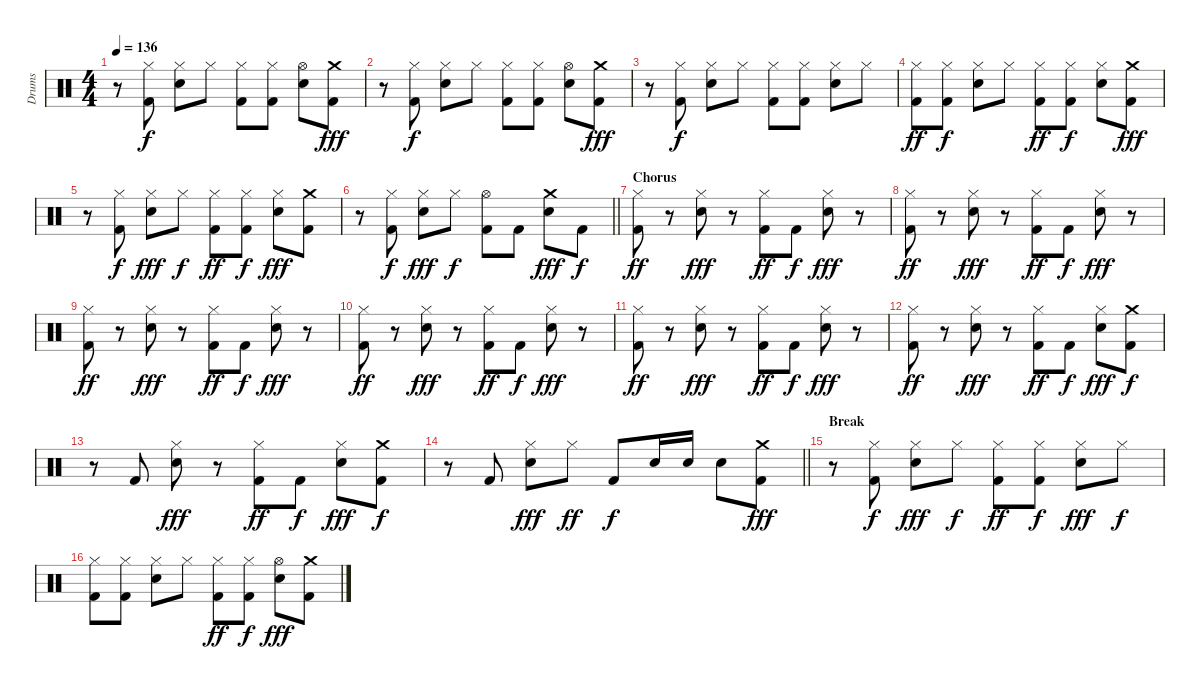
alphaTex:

\track ("Drums" "Drums") {instrument percussion}
\staff {score}
\articulation defaults
\ts (4 4)
\tempo 136
\clef neutral
\ks c
r.8{dy fff} ("Hi-Hat (closed)" "Kick (hit) 2").8{dy f} ("Hi-Hat (closed)" "Snare (hit) 2").8 "Hi-Hat (closed)".8 ("Hi-Hat (closed)" "Kick (hit) 2").8 ("Hi-Hat (closed)" "Kick (hit) 2").8 ("Hi-Hat (open)" "Snare (hit) 2").8 ("Crash medium (hit)" "Kick (hit) 2").8{dy fff} |
r.8 ("Hi-Hat (closed)" "Kick (hit) 2").8{dy f} ("Hi-Hat (closed)" "Snare (hit) 2").8 "Hi-Hat (closed)".8 ("Hi-Hat (closed)" "Kick (hit) 2").8 ("Hi-Hat (closed)" "Kick (hit) 2").8 ("Hi-Hat (open)" "Snare (hit) 2").8 ("Crash medium (hit)" "Kick (hit) 2").8{dy fff} |
r.8 ("Hi-Hat (closed)" "Kick (hit) 2").8{dy f} ("Hi-Hat (closed)" "Snare (hit) 2").8 "Hi-Hat (closed)".8 ("Hi-Hat (closed)" "Kick (hit) 2").8 ("Hi-Hat (closed)" "Kick (hit) 2").8 ("Hi-Hat (closed)" "Snare (hit) 2").8 "Hi-Hat (closed)".8 |
("Hi-Hat (closed)" "Kick (hit) 2").8{dy ff} ("Hi-Hat (closed)" "Kick (hit) 2").8{dy f} ("Hi-Hat (closed)" "Snare (hit) 2").8 "Hi-Hat (closed)".8 ("Hi-Hat (closed)" "Kick (hit) 2").8{dy ff} ("Hi-Hat (closed)" "Kick (hit) 2").8{dy f} ("Hi-Hat (closed)" "Snare (hit) 2").8 ("Crash medium (hit)" "Kick (hit) 2").8{dy fff} |
r.8 ("Hi-Hat (closed)" "Kick (hit) 2").8{dy f} ("Hi-Hat (closed)" "Snare (hit) 2").8{dy fff} "Hi-Hat (closed)".8{dy f} ("Hi-Hat (closed)" "Kick (hit) 2").8{dy ff} ("Hi-Hat (closed)" "Kick (hit) 2").8{dy f} ("Hi-Hat (closed)" "Snare (hit) 2").8{dy fff} ("Crash medium (hit)" "Kick (hit) 2").8 |
\barLineRight lightlight
r.8 ("Hi-Hat (closed)" "Kick (hit) 2").8{dy f} ("Hi-Hat (closed)" "Snare (hit) 2").8{dy fff} "Hi-Hat (closed)".8{dy f} ("Hi-Hat (open)" "Kick (hit) 2").8 "Kick (hit) 2".8 ("Crash medium (hit)" "Snare (hit) 2").8{dy fff} "Kick (hit) 2".8{dy f} |
\section ("" "Chorus")
("Hi-Hat (closed)" "Kick (hit) 2").8{dy ff} r.8 ("Hi-Hat (closed)" "Snare (hit) 2").8{dy fff} r.8 ("Hi-Hat (closed)" "Kick (hit) 2").8{dy ff} "Kick (hit) 2".8{dy f} ("Hi-Hat (closed)" "Snare (hit) 2").8{dy fff} r.8 |
("Hi-Hat (closed)" "Kick (hit) 2").8{dy ff} r.8 ("Hi-Hat (closed)" "Snare (hit) 2").8{dy fff} r.8 ("Hi-Hat (closed)" "Kick (hit) 2").8{dy ff} "Kick (hit) 2".8{dy f} ("Hi-Hat (closed)" "Snare (hit) 2").8{dy fff} r.8 |
("Hi-Hat (closed)" "Kick (hit) 2").8{dy ff} r.8 ("Hi-Hat (closed)" "Snare (hit) 2").8{dy fff} r.8 ("Hi-Hat (closed)" "Kick (hit) 2").8{dy ff} "Kick (hit) 2".8{dy f} ("Hi-Hat (closed)" "Snare (hit) 2").8{dy fff} r.8 |
("Hi-Hat (closed)" "Kick (hit) 2").8{dy ff} r.8 ("Hi-Hat (closed)" "Snare (hit) 2").8{dy fff} r.8 ("Hi-Hat (closed)" "Kick (hit) 2").8{dy ff} "Kick (hit) 2".8{dy f} ("Hi-Hat (closed)" "Snare (hit) 2").8{dy fff} r.8 |
("Hi-Hat (closed)" "Kick (hit) 2").8{dy ff} r.8 ("Hi-Hat (closed)" "Snare (hit) 2").8{dy fff} r.8 ("Hi-Hat (closed)" "Kick (hit) 2").8{dy ff} "Kick (hit) 2".8{dy f} ("Hi-Hat (closed)" "Snare (hit) 2").8{dy fff} r.8 |
("Hi-Hat (closed)" "Kick (hit) 2").8{dy ff} r.8 ("Hi-Hat (closed)" "Snare (hit) 2").8{dy fff} r.8 ("Hi-Hat (closed)" "Kick (hit) 2").8{dy ff} "Kick (hit) 2".8{dy f} ("Hi-Hat (closed)" "Snare (hit) 2").8{dy fff} ("Crash medium (hit)" "Kick (hit) 2").8{dy f} |
r.8 "Kick (hit) 2".8 ("Hi-Hat (closed)" "Snare (hit) 2").8{dy fff} r.8 ("Hi-Hat (closed)" "Kick (hit) 2").8{dy ff} "Kick (hit) 2".8{dy f} ("Hi-Hat (closed)" "Snare (hit) 2").8{dy fff} ("Crash medium (hit)" "Kick (hit) 2").8{dy f} |
\barLineRight lightlight
r.8 "Kick (hit) 2".8 ("Hi-Hat (closed)" "Snare (hit) 2").8{dy fff} "Hi-Hat (closed)".8{dy ff} "Kick (hit) 2".8{dy f} "Snare (hit) 2".16 "Snare (hit) 2".16 "Snare (hit) 2".8 ("Crash medium (hit)" "Kick (hit) 2").8{dy fff} |
\section ("" "Break")
r.8 ("Hi-Hat (closed)" "Kick (hit) 2").8{dy f} ("Hi-Hat (closed)" "Snare (hit) 2").8{dy fff} "Hi-Hat (closed)".8{dy f} ("Hi-Hat (closed)" "Kick (hit) 2").8{dy ff} ("Hi-Hat (closed)" "Kick (hit) 2").8{dy f} ("Hi-Hat (closed)" "Snare (hit) 2").8{dy fff} "Hi-Hat (closed)".8{dy f} |
("Hi-Hat (closed)" "Kick (hit) 2").8 ("Hi-Hat (closed)" "Kick (hit) 2").8 ("Hi-Hat (closed)" "Snare (hit) 2").8 "Hi-Hat (closed)".8 ("Hi-Hat (closed)" "Kick (hit) 2").8{dy ff} ("Hi-Hat (closed)" "Kick (hit) 2").8{dy f} ("Hi-Hat (open)" "Snare (hit) 2").8{dy fff} ("Crash medium (hit)" "Kick (hit) 2").8
